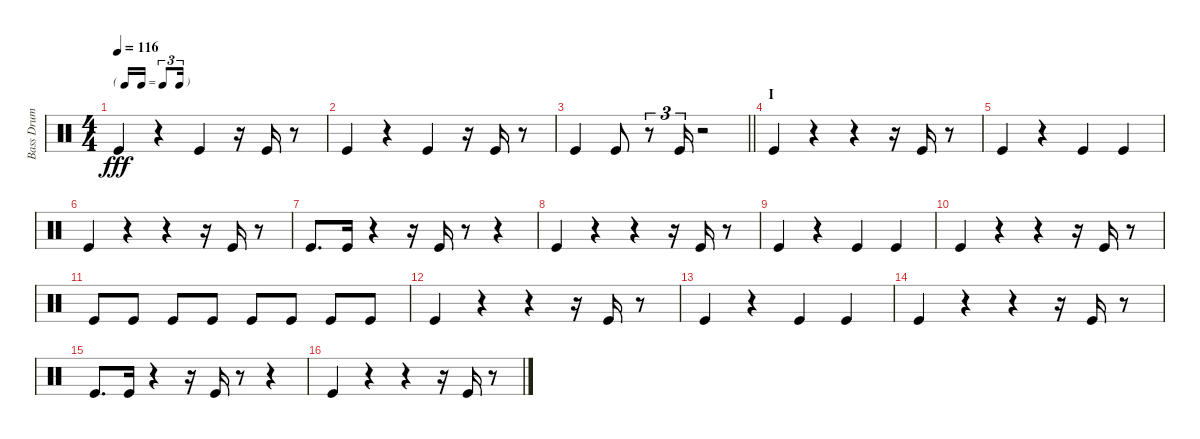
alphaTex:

\track ("Bass Drum" "Bass Drum") {instrument percussion}
\staff {score}
\articulation defaults
\ts (4 4)
\tf triplet16th
\tempo 116
\clef neutral
\ks c "Kick (hit)".4{dy fff}
r.4 "Kick (hit)".4 r.16 "Kick (hit)".16 r.8 |
"Kick (hit)".4 r.4 "Kick (hit)".4 r.16 "Kick (hit)".16 r.8 |
\barLineRight lightlight "Kick (hit)".4 "Kick (hit)".8
r.8{tu (3 2)} "Kick (hit)".16{tu (3 2)} r.2 |
\section ("" "I")
"Kick (hit)".4 r.4 r.4 r.16 "Kick (hit)".16 r.8 |
"Kick (hit)".4 r.4 "Kick (hit)".4 "Kick (hit)".4 |
"Kick (hit)".4 r.4 r.4 r.16 "Kick (hit)".16 r.8 |
"Kick (hit)".8{d} "Kick (hit)".16 r.4 r.16 "Kick (hit)".16 r.8 r.4 |
"Kick (hit)".4 r.4 r.4 r.16 "Kick (hit)".16 r.8 |
"Kick (hit)".4 r.4 "Kick (hit)".4 "Kick (hit)".4 |
"Kick (hit)".4 r.4 r.4 r.16 "Kick (hit)".16 r.8 |
"Kick (hit)".8 "Kick (hit)".8 "Kick (hit)".8 "Kick (hit)".8 "Kick (hit)".8 "Kick (hit)".8 "Kick (hit)".8 "Kick (hit)".8 |
"Kick (hit)".4 r.4 r.4 r.16 "Kick (hit)".16 r.8 |
"Kick (hit)".4 r.4 "Kick (hit)".4 "Kick (hit)".4 |
"Kick (hit)".4 r.4 r.4 r.16 "Kick (hit)".16 r.8 |
"Kick (hit)".8{d} "Kick (hit)".16 r.4 r.16 "Kick (hit)".16 r.8 r.4 |
"Kick (hit)".4 r.4 r.4 r.16 "Kick (hit)".16 r.8
